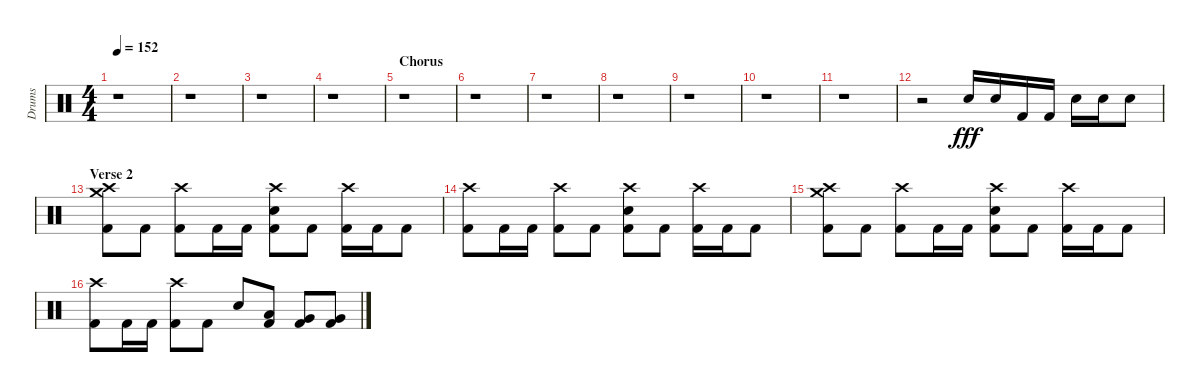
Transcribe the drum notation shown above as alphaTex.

\track ("Drums" "Drums") {instrument percussion}
\staff {score}
\articulation defaults
\ts (4 4)
\tempo 152
\clef neutral
\ks c
r.1{dy fff} |
r.1 |
r.1 |
r.1 |
\section ("" "Chorus")
r.1 |
r.1 |
r.1 |
r.1 |
r.1 |
r.1 |
r.1 |
r.2 "Snare (hit) 2".16 "Snare (hit) 2".16 "Kick (hit) 2".16 "Kick (hit) 2".16 "Snare (hit) 2".16 "Snare (hit) 2".16 "Snare (hit) 2".8 |
\section ("" "Verse 2")
("Crash high (hit)" "Crash medium (hit)" "Kick (hit) 2").8 "Kick (hit) 2".8 ("Crash high (hit)" "Kick (hit) 2").8 "Kick (hit) 2".16 "Kick (hit) 2".16 ("Crash high (hit)" "Snare (hit) 2" "Kick (hit) 2").8 "Kick (hit) 2".8 ("Crash high (hit)" "Kick (hit) 2").16 "Kick (hit) 2".16 "Kick (hit) 2".8 |
("Crash high (hit)" "Kick (hit) 2").8 "Kick (hit) 2".16 "Kick (hit) 2".16 ("Crash high (hit)" "Kick (hit) 2").8 "Kick (hit) 2".8 ("Crash high (hit)" "Snare (hit) 2" "Kick (hit) 2").8 "Kick (hit) 2".8 ("Crash high (hit)" "Kick (hit) 2").16 "Kick (hit) 2".16 "Kick (hit) 2".8 |
("Crash medium (hit)" "Crash high (hit)" "Kick (hit) 2").8 "Kick (hit) 2".8 ("Crash high (hit)" "Kick (hit) 2").8 "Kick (hit) 2".16 "Kick (hit) 2".16 ("Crash high (hit)" "Snare (hit) 2" "Kick (hit) 2").8 "Kick (hit) 2".8 ("Crash high (hit)" "Kick (hit) 2").16 "Kick (hit) 2".16 "Kick (hit) 2".8 |
("Crash high (hit)" "Kick (hit) 2").8 "Kick (hit) 2".16 "Kick (hit) 2".16 ("Crash high (hit)" "Kick (hit) 2").8 "Kick (hit) 2".8 "Snare (hit) 2".8 ("Low Tom (hit)" "Kick (hit) 2").8 ("Very Low Tom (hit)" "Kick (hit) 2").8 ("Very Low Tom (hit)" "Kick (hit) 2").8
